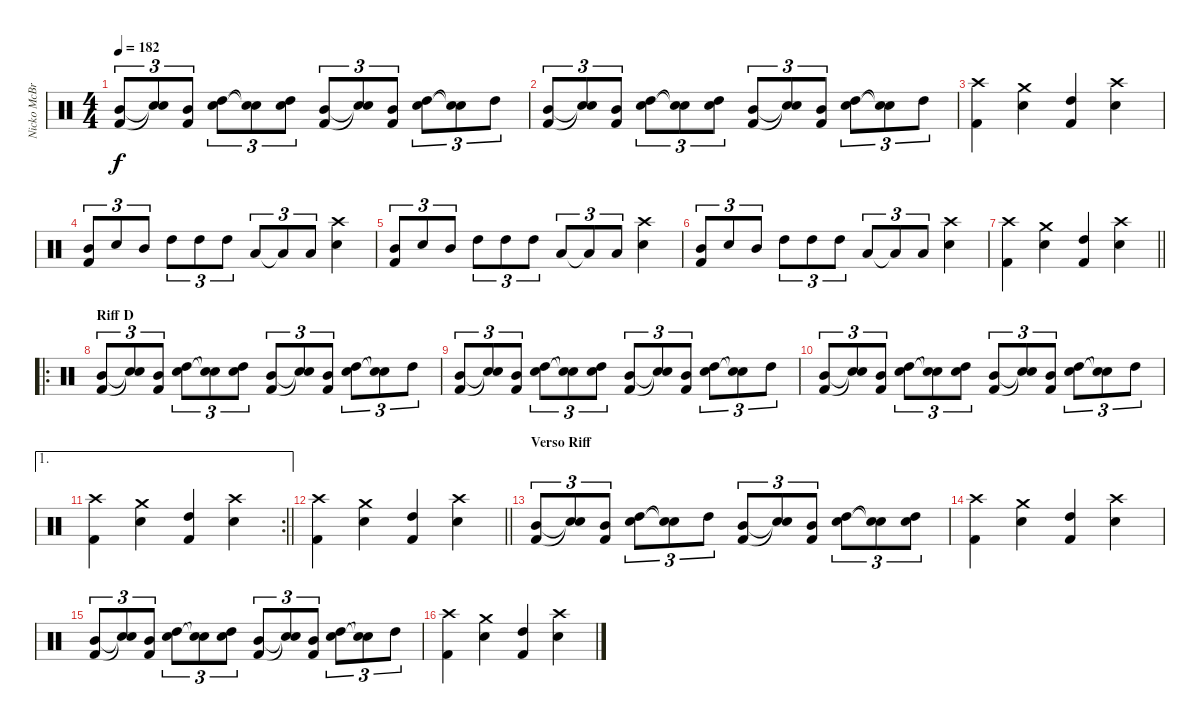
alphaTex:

\track ("Nicko McBrain" "Nicko McBr") {instrument percussion}
\staff {score}
\articulation defaults
\ts (4 4)
\tempo 182
\clef neutral
\ks c
("Mid Tom (hit)" "Kick (hit) 2").8{tu (3 2) dy f} ("Snare (hit)"{t} "Snare (hit)"{t}).8{tu (3 2)} ("Mid Tom (hit)" "Kick (hit) 2").8{tu (3 2)} ("High Tom (hit)" "Snare (hit) 2").8{tu (3 2)} ("Snare (hit)"{t} "Snare (hit)"{t}).8{tu (3 2)} ("High Tom (hit)" "Snare (hit) 2").8{tu (3 2)} ("Mid Tom (hit)" "Kick (hit) 2").8{tu (3 2)} ("Snare (hit)"{t} "Snare (hit)"{t}).8{tu (3 2)} ("Mid Tom (hit)" "Kick (hit) 2").8{tu (3 2)} ("High Tom (hit)" "Snare (hit) 2").8{tu (3 2)} ("Snare (hit)"{t} "Snare (hit)"{t}).8{tu (3 2)} "High Tom (hit)".8{tu (3 2)} |
("Mid Tom (hit)" "Kick (hit) 2").8{tu (3 2)} ("Snare (hit)"{t} "Snare (hit)"{t}).8{tu (3 2)} ("Mid Tom (hit)" "Kick (hit) 2").8{tu (3 2)} ("High Tom (hit)" "Snare (hit) 2").8{tu (3 2)} ("Snare (hit)"{t} "Snare (hit)"{t}).8{tu (3 2)} ("High Tom (hit)" "Snare (hit) 2").8{tu (3 2)} ("Mid Tom (hit)" "Kick (hit) 2").8{tu (3 2)} ("Snare (hit)"{t} "Snare (hit)"{t}).8{tu (3 2)} ("Mid Tom (hit)" "Kick (hit) 2").8{tu (3 2)} ("High Tom (hit)" "Snare (hit) 2").8{tu (3 2)} ("Snare (hit)"{t} "Snare (hit)"{t}).8{tu (3 2)} "High Tom (hit)".8{tu (3 2)} |
("Kick (hit) 2" "Crash high (hit)").4 ("Snare (hit) 2" "Crash medium (hit)").4 ("High Tom (hit)" "Kick (hit) 2").4 ("Snare (hit) 2" "Crash high (hit)").4 |
("Mid Tom (hit)" "Kick (hit) 2").8{tu (3 2)} "Snare (hit) 2".8{tu (3 2)} "Mid Tom (hit)".8{tu (3 2)} "High Tom (hit)".8{tu (3 2)} "High Tom (hit)".8{tu (3 2)} "High Tom (hit)".8{tu (3 2)} "Low Tom (hit)".8{tu (3 2)} "Low Tom (hit)"{t}.8{tu (3 2)} "Low Tom (hit)".8{tu (3 2)} ("Snare (hit) 2" "Crash high (hit)").4 |
("Mid Tom (hit)" "Kick (hit) 2").8{tu (3 2)} "Snare (hit) 2".8{tu (3 2)} "Mid Tom (hit)".8{tu (3 2)} "High Tom (hit)".8{tu (3 2)} "High Tom (hit)".8{tu (3 2)} "High Tom (hit)".8{tu (3 2)} "Low Tom (hit)".8{tu (3 2)} "Low Tom (hit)"{t}.8{tu (3 2)} "Low Tom (hit)".8{tu (3 2)} ("Snare (hit) 2" "Crash high (hit)").4 |
("Mid Tom (hit)" "Kick (hit) 2").8{tu (3 2)} "Snare (hit) 2".8{tu (3 2)} "Mid Tom (hit)".8{tu (3 2)} "High Tom (hit)".8{tu (3 2)} "High Tom (hit)".8{tu (3 2)} "High Tom (hit)".8{tu (3 2)} "Low Tom (hit)".8{tu (3 2)} "Low Tom (hit)"{t}.8{tu (3 2)} "Low Tom (hit)".8{tu (3 2)} ("Snare (hit) 2" "Crash high (hit)").4 |
\barLineRight lightlight
("Kick (hit) 2" "Crash high (hit)").4 ("Snare (hit) 2" "Crash medium (hit)").4 ("High Tom (hit)" "Kick (hit) 2").4 ("Snare (hit) 2" "Crash high (hit)").4 |
\ro
\section ("" "Riff D")
("Mid Tom (hit)" "Kick (hit) 2").8{tu (3 2)} ("Snare (hit)"{t} "Snare (hit)"{t}).8{tu (3 2)} ("Mid Tom (hit)" "Kick (hit) 2").8{tu (3 2)} ("High Tom (hit)" "Snare (hit) 2").8{tu (3 2)} ("Snare (hit)"{t} "Snare (hit)"{t}).8{tu (3 2)} ("High Tom (hit)" "Snare (hit) 2").8{tu (3 2)} ("Mid Tom (hit)" "Kick (hit) 2").8{tu (3 2)} ("Snare (hit)"{t} "Snare (hit)"{t}).8{tu (3 2)} ("Mid Tom (hit)" "Kick (hit) 2").8{tu (3 2)} ("High Tom (hit)" "Snare (hit) 2").8{tu (3 2)} ("Snare (hit)"{t} "Snare (hit)"{t}).8{tu (3 2)} "High Tom (hit)".8{tu (3 2)} |
("Mid Tom (hit)" "Kick (hit) 2").8{tu (3 2)} ("Snare (hit)"{t} "Snare (hit)"{t}).8{tu (3 2)} ("Mid Tom (hit)" "Kick (hit) 2").8{tu (3 2)} ("High Tom (hit)" "Snare (hit) 2").8{tu (3 2)} ("Snare (hit)"{t} "Snare (hit)"{t}).8{tu (3 2)} ("High Tom (hit)" "Snare (hit) 2").8{tu (3 2)} ("Mid Tom (hit)" "Kick (hit) 2").8{tu (3 2)} ("Snare (hit)"{t} "Snare (hit)"{t}).8{tu (3 2)} ("Mid Tom (hit)" "Kick (hit) 2").8{tu (3 2)} ("High Tom (hit)" "Snare (hit) 2").8{tu (3 2)} ("Snare (hit)"{t} "Snare (hit)"{t}).8{tu (3 2)} "High Tom (hit)".8{tu (3 2)} |
("Mid Tom (hit)" "Kick (hit) 2").8{tu (3 2)} ("Snare (hit)"{t} "Snare (hit)"{t}).8{tu (3 2)} ("Mid Tom (hit)" "Kick (hit) 2").8{tu (3 2)} ("High Tom (hit)" "Snare (hit) 2").8{tu (3 2)} ("Snare (hit)"{t} "Snare (hit)"{t}).8{tu (3 2)} ("High Tom (hit)" "Snare (hit) 2").8{tu (3 2)} ("Mid Tom (hit)" "Kick (hit) 2").8{tu (3 2)} ("Snare (hit)"{t} "Snare (hit)"{t}).8{tu (3 2)} ("Mid Tom (hit)" "Kick (hit) 2").8{tu (3 2)} ("High Tom (hit)" "Snare (hit) 2").8{tu (3 2)} ("Snare (hit)"{t} "Snare (hit)"{t}).8{tu (3 2)} "High Tom (hit)".8{tu (3 2)} |
\ae 1
\rc 2
\barLineRight lightlight
("Kick (hit) 2" "Crash high (hit)").4 ("Snare (hit) 2" "Crash medium (hit)").4 ("High Tom (hit)" "Kick (hit) 2").4 ("Snare (hit) 2" "Crash high (hit)").4 |
\barLineRight lightlight
("Kick (hit) 2" "Crash high (hit)").4 ("Snare (hit) 2" "Crash medium (hit)").4 ("High Tom (hit)" "Kick (hit) 2").4 ("Snare (hit) 2" "Crash high (hit)").4 |
\section ("" "Verso Riff")
("Mid Tom (hit)" "Kick (hit) 2").8{tu (3 2)} ("Snare (hit)"{t} "Snare (hit)"{t}).8{tu (3 2)} ("Mid Tom (hit)" "Kick (hit) 2").8{tu (3 2)} ("High Tom (hit)" "Snare (hit) 2").8{tu (3 2)} ("Snare (hit)"{t} "Snare (hit)"{t}).8{tu (3 2)} "High Tom (hit)".8{tu (3 2)} ("Mid Tom (hit)" "Kick (hit) 2").8{tu (3 2)} ("Snare (hit)"{t} "Snare (hit)"{t}).8{tu (3 2)} ("Mid Tom (hit)" "Kick (hit) 2").8{tu (3 2)} ("High Tom (hit)" "Snare (hit) 2").8{tu (3 2)} ("Snare (hit)"{t} "Snare (hit)"{t}).8{tu (3 2)} ("High Tom (hit)" "Snare (hit) 2").8{tu (3 2)} |
("Kick (hit) 2" "Crash high (hit)").4 ("Snare (hit) 2" "Crash medium (hit)").4 ("High Tom (hit)" "Kick (hit) 2").4 ("Snare (hit) 2" "Crash high (hit)").4 |
("Mid Tom (hit)" "Kick (hit) 2").8{tu (3 2)} ("Snare (hit)"{t} "Snare (hit)"{t}).8{tu (3 2)} ("Mid Tom (hit)" "Kick (hit) 2").8{tu (3 2)} ("High Tom (hit)" "Snare (hit) 2").8{tu (3 2)} ("Snare (hit)"{t} "Snare (hit)"{t}).8{tu (3 2)} ("High Tom (hit)" "Snare (hit) 2").8{tu (3 2)} ("Mid Tom (hit)" "Kick (hit) 2").8{tu (3 2)} ("Snare (hit)"{t} "Snare (hit)"{t}).8{tu (3 2)} ("Mid Tom (hit)" "Kick (hit) 2").8{tu (3 2)} ("High Tom (hit)" "Snare (hit) 2").8{tu (3 2)} ("Snare (hit)"{t} "Snare (hit)"{t}).8{tu (3 2)} "High Tom (hit)".8{tu (3 2)} |
("Kick (hit) 2" "Crash high (hit)").4 ("Snare (hit) 2" "Crash medium (hit)").4 ("High Tom (hit)" "Kick (hit) 2").4 ("Snare (hit) 2" "Crash high (hit)").4
